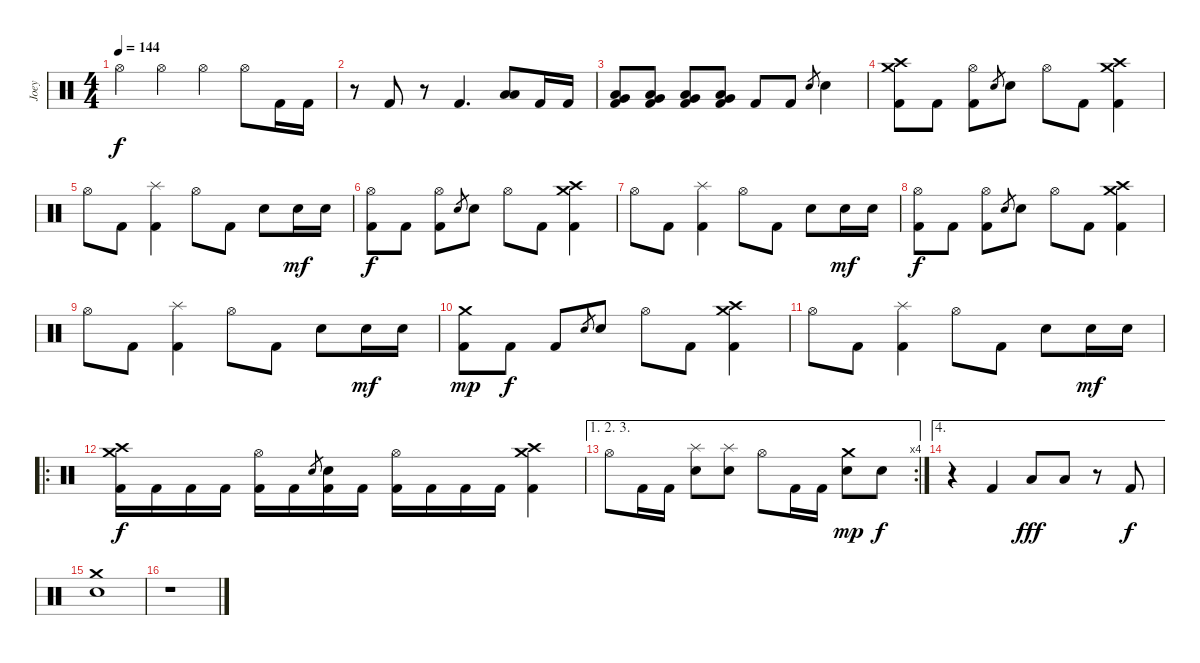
\track ("Joey" "Joey") {instrument percussion}
\staff {score}
\articulation defaults
\ts (4 4)
\tempo 144
\clef neutral
\ks c "Hi-Hat (open)".4{dy f} "Hi-Hat (open)".4 "Hi-Hat (open)".4 "Hi-Hat (open)".8 "Kick (hit) 2".16 "Kick (hit) 2".16
|
r.8 "Kick (hit) 2".8 r.8 "Kick (hit) 2".4{d} ("Low Tom (hit)" "Low Floor Tom (hit)").8 "Kick (hit) 2".16 "Kick (hit) 2".16 |
("Very Low Tom (hit)" "Low Floor Tom (hit)" "Kick (hit) 2").8 ("Very Low Tom (hit)" "Low Floor Tom (hit)" "Kick (hit) 2").8 ("Very Low Tom (hit)" "Low Floor Tom (hit)" "Kick (hit) 2").8 ("Very Low Tom (hit)" "Low Floor Tom (hit)" "Kick (hit) 2").8 "Kick (hit) 2".8 "Kick (hit) 2".8 "Electric Snare (hit)".8{gr} "Electric Snare (hit)".4 |
("Crash high (hit)" "Crash medium (hit)" "Kick (hit) 2").8 "Kick (hit) 2".8 ("Hi-Hat (open)" "Kick (hit) 2").8 "Electric Snare (hit)".8{gr} "Electric Snare (hit)".8 "Hi-Hat (open)".8 "Kick (hit) 2".8 ("Crash high (hit)" "Crash medium (hit)" "Kick (hit) 2").4 |
"Hi-Hat (open)".8 "Kick (hit) 2".8 ("Splash (hit)" "Kick (hit) 2").4 "Hi-Hat (open)".8 "Kick (hit) 2".8 "Electric Snare (hit)".8 "Electric Snare (hit)".16{dy mf} "Electric Snare (hit)".16 |
("Hi-Hat (open)" "Kick (hit) 2").8{dy f} "Kick (hit) 2".8 ("Hi-Hat (open)" "Kick (hit) 2").8 "Electric Snare (hit)".8{gr} "Electric Snare (hit)".8 "Hi-Hat (open)".8 "Kick (hit) 2".8 ("Crash high (hit)" "Crash medium (hit)" "Kick (hit) 2").4 |
"Hi-Hat (open)".8 "Kick (hit) 2".8 ("Splash (hit)" "Kick (hit) 2").4 "Hi-Hat (open)".8 "Kick (hit) 2".8 "Electric Snare (hit)".8 "Electric Snare (hit)".16{dy mf} "Electric Snare (hit)".16 |
("Hi-Hat (open)" "Kick (hit) 2").8{dy f} "Kick (hit) 2".8 ("Hi-Hat (open)" "Kick (hit) 2").8 "Electric Snare (hit)".8{gr} "Electric Snare (hit)".8 "Hi-Hat (open)".8 "Kick (hit) 2".8 ("Crash high (hit)" "Crash medium (hit)" "Kick (hit) 2").4 |
"Hi-Hat (open)".8 "Kick (hit) 2".8 ("Splash (hit)" "Kick (hit) 2").4 "Hi-Hat (open)".8 "Kick (hit) 2".8 "Electric Snare (hit)".8 "Electric Snare (hit)".16{dy mf} "Electric Snare (hit)".16 |
("Crash medium (hit)" "Kick (hit) 2").8{dy mp} "Kick (hit) 2".8{dy f} "Kick (hit) 2".8 "Electric Snare (hit)".8{gr} "Electric Snare (hit)".8 "Hi-Hat (open)".8 "Kick (hit) 2".8 ("Crash high (hit)" "Crash medium (hit)" "Kick (hit) 2").4 |
"Hi-Hat (open)".8 "Kick (hit) 2".8 ("Splash (hit)" "Kick (hit) 2").4 "Hi-Hat (open)".8 "Kick (hit) 2".8 "Electric Snare (hit)".8 "Electric Snare (hit)".16{dy mf} "Electric Snare (hit)".16 |
\ro
("Crash high (hit)" "Crash medium (hit)" "Kick (hit) 2").16{dy f} "Kick (hit) 2".16 "Kick (hit) 2".16 "Kick (hit) 2".16 ("Hi-Hat (open)" "Kick (hit) 2").16 "Kick (hit) 2".16 "Electric Snare (hit)".8{gr} ("Electric Snare (hit)" "Kick (hit) 2").16 "Kick (hit) 2".16 ("Hi-Hat (open)" "Kick (hit) 2").16 "Kick (hit) 2".16 "Kick (hit) 2".16 "Kick (hit) 2".16 ("Crash high (hit)" "Crash medium (hit)" "Kick (hit) 2").4 |
\ae (1 2 3)
\rc 4 "Hi-Hat (open)".8 "Kick (hit) 2".16 "Kick (hit) 2".16
("Splash (hit)" "Electric Snare (hit)").8 ("Splash (hit)" "Electric Snare (hit)").8 "Hi-Hat (open)".8 "Kick (hit) 2".16 "Kick (hit) 2".16 ("Crash medium (hit)" "Electric Snare (hit)").8{dy mp} "Electric Snare (hit)".8{dy f} |
\ae 4
r.4 "Kick (hit) 2".4 "Low Floor Tom (hit)".8{dy fff} "Low Floor Tom (hit)".8 r.8 "Kick (hit) 2".8{dy f} |
("Crash medium (hit)" "Electric Snare (hit)").1 |
r.1
